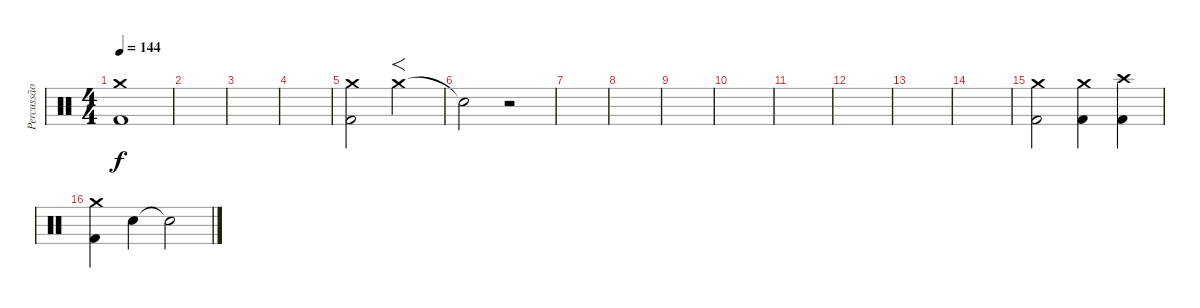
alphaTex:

\track ("Percussão" "Percussão") {instrument percussion}
\staff {score}
\articulation defaults
\ts (4 4)
\tempo 144
\clef neutral
\ks c
("Crash medium (hit)" "Kick (hit) 2").1{dy f} |
|
|
|
("Crash medium (hit)" "Kick (hit) 2").2 "Crash medium (hit)"{tr (57 32)}.2{f} |
"Snare (hit)"{t}.2 r.2 |
|
|
|
|
|
|
|
|
("Crash medium (hit)" "Kick (hit) 2").2 ("Crash medium (hit)" "Kick (hit) 2").4 ("Crash high (hit)" "Kick (hit) 2").4 |
("Crash medium (hit)" "Kick (hit) 2").4 "Electric Snare (hit)"{tr (40 16)}.4 "Snare (hit)"{t}.2
